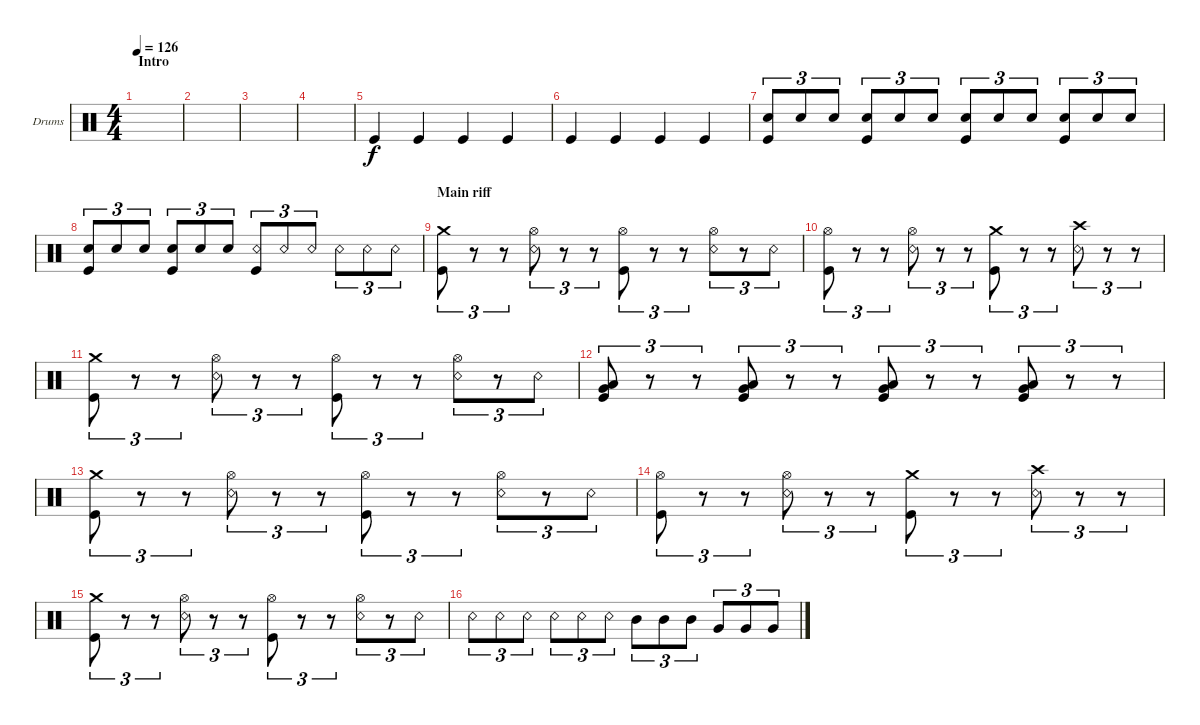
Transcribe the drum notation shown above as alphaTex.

\defaultSystemsLayout 4
\bracketExtendMode groupsimilarinstruments
\firstSystemTrackNameOrientation horizontal
\otherSystemsTrackNameOrientation horizontal
\track ("Dominic Howard" "Drums") {instrument percussion}
\staff {score}
\articulation defaults
\ts (4 4)
\section ("" "Intro")
\tempo 126
\clef neutral
\ks c
|
|
|
|
"Kick (hit)".4 "Kick (hit)".4 "Kick (hit)".4 "Kick (hit)".4 |
"Kick (hit)".4 "Kick (hit)".4 "Kick (hit)".4 "Kick (hit)".4 |
("Snare (hit) 2" "Kick (hit)").8{tu (3 2)} "Snare (hit) 2".8{tu (3 2)} "Snare (hit) 2".8{tu (3 2)} ("Snare (hit) 2" "Kick (hit)").8{tu (3 2)} "Snare (hit) 2".8{tu (3 2)} "Snare (hit) 2".8{tu (3 2)} ("Snare (hit) 2" "Kick (hit)").8{tu (3 2)} "Snare (hit) 2".8{tu (3 2)} "Snare (hit) 2".8{tu (3 2)} ("Snare (hit) 2" "Kick (hit)").8{tu (3 2)} "Snare (hit) 2".8{tu (3 2)} "Snare (hit) 2".8{tu (3 2)} |
("Snare (hit) 2" "Kick (hit)").8{tu (3 2)} "Snare (hit) 2".8{tu (3 2)} "Snare (hit) 2".8{tu (3 2)} ("Snare (hit) 2" "Kick (hit)").8{tu (3 2)} "Snare (hit) 2".8{tu (3 2)} "Snare (hit) 2".8{tu (3 2)} ("Snare (rim shot)" "Kick (hit)").8{tu (3 2)} "Snare (rim shot)".8{tu (3 2)} "Snare (rim shot)".8{tu (3 2)} "Snare (rim shot)".8{tu (3 2)} "Snare (rim shot)".8{tu (3 2)} "Snare (rim shot)".8{tu (3 2)} |
\section ("" "Main riff")
("Kick (hit)" "Crash medium (hit)").8{tu (3 2)} r.8{tu (3 2)} r.8{tu (3 2)} ("Snare (rim shot)" "Hi-Hat (open)").8{tu (3 2)} r.8{tu (3 2)} r.8{tu (3 2)} ("Kick (hit)" "Hi-Hat (open)").8{tu (3 2)} r.8{tu (3 2)} r.8{tu (3 2)} ("Snare (rim shot)" "Hi-Hat (open)").8{tu (3 2)} r.8{tu (3 2)} "Snare (rim shot)".8{tu (3 2)} |
("Kick (hit)" "Hi-Hat (open)").8{tu (3 2)} r.8{tu (3 2)} r.8{tu (3 2)} ("Snare (rim shot)" "Hi-Hat (open)").8{tu (3 2)} r.8{tu (3 2)} r.8{tu (3 2)} ("Kick (hit)" "Crash medium (hit)").8{tu (3 2)} r.8{tu (3 2)} r.8{tu (3 2)} ("Snare (rim shot)" "Crash high (hit)").8{tu (3 2)} r.8{tu (3 2)} r.8{tu (3 2)} |
("Kick (hit)" "Crash medium (hit)").8{tu (3 2)} r.8{tu (3 2)} r.8{tu (3 2)} ("Snare (rim shot)" "Hi-Hat (open)").8{tu (3 2)} r.8{tu (3 2)} r.8{tu (3 2)} ("Kick (hit)" "Hi-Hat (open)").8{tu (3 2)} r.8{tu (3 2)} r.8{tu (3 2)} ("Snare (rim shot)" "Hi-Hat (open)").8{tu (3 2)} r.8{tu (3 2)} "Snare (rim shot)".8{tu (3 2)} |
("Low Tom (hit)" "Very Low Tom (hit)" "Kick (hit)").8{tu (3 2)} r.8{tu (3 2)} r.8{tu (3 2)} ("Low Tom (hit)" "Very Low Tom (hit)" "Kick (hit)").8{tu (3 2)} r.8{tu (3 2)} r.8{tu (3 2)} ("Low Tom (hit)" "Very Low Tom (hit)" "Kick (hit)").8{tu (3 2)} r.8{tu (3 2)} r.8{tu (3 2)} ("Low Tom (hit)" "Very Low Tom (hit)" "Kick (hit)").8{tu (3 2)} r.8{tu (3 2)} r.8{tu (3 2)} |
("Kick (hit)" "Crash medium (hit)").8{tu (3 2)} r.8{tu (3 2)} r.8{tu (3 2)} ("Snare (rim shot)" "Hi-Hat (open)").8{tu (3 2)} r.8{tu (3 2)} r.8{tu (3 2)} ("Kick (hit)" "Hi-Hat (open)").8{tu (3 2)} r.8{tu (3 2)} r.8{tu (3 2)} ("Snare (rim shot)" "Hi-Hat (open)").8{tu (3 2)} r.8{tu (3 2)} "Snare (rim shot)".8{tu (3 2)} |
("Kick (hit)" "Hi-Hat (open)").8{tu (3 2)} r.8{tu (3 2)} r.8{tu (3 2)} ("Snare (rim shot)" "Hi-Hat (open)").8{tu (3 2)} r.8{tu (3 2)} r.8{tu (3 2)} ("Kick (hit)" "Crash medium (hit)").8{tu (3 2)} r.8{tu (3 2)} r.8{tu (3 2)} ("Snare (rim shot)" "Crash high (hit)").8{tu (3 2)} r.8{tu (3 2)} r.8{tu (3 2)} |
("Kick (hit)" "Crash medium (hit)").8{tu (3 2)} r.8{tu (3 2)} r.8{tu (3 2)} ("Snare (rim shot)" "Hi-Hat (open)").8{tu (3 2)} r.8{tu (3 2)} r.8{tu (3 2)} ("Kick (hit)" "Hi-Hat (open)").8{tu (3 2)} r.8{tu (3 2)} r.8{tu (3 2)} ("Snare (rim shot)" "Hi-Hat (open)").8{tu (3 2)} r.8{tu (3 2)} "Snare (rim shot)".8{tu (3 2)} |
"Snare (rim shot)".8{tu (3 2)} "Snare (rim shot)".8{tu (3 2)} "Snare (rim shot)".8{tu (3 2)} "Snare (rim shot)".8{tu (3 2)} "Snare (rim shot)".8{tu (3 2)} "Snare (rim shot)".8{tu (3 2)} "Mid Tom (hit)".8{tu (3 2)} "Mid Tom (hit)".8{tu (3 2)} "Mid Tom (hit)".8{tu (3 2)} "Very Low Tom (hit)".8{tu (3 2)} "Very Low Tom (hit)".8{tu (3 2)} "Very Low Tom (hit)".8{tu (3 2)}
